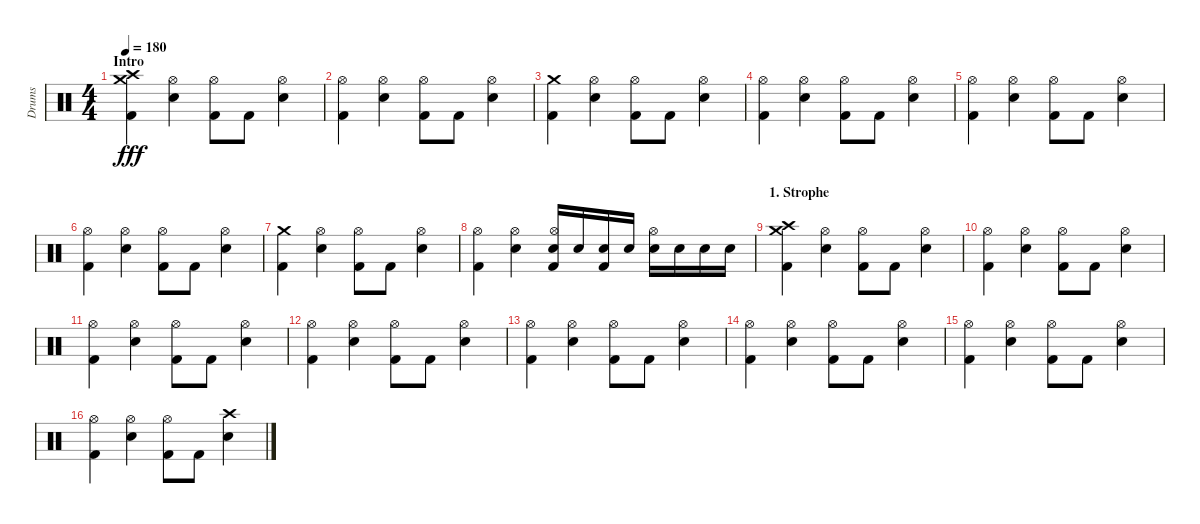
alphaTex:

\track ("Drums" "Drums") {instrument percussion}
\staff {score}
\articulation defaults
\ts (4 4)
\section ("" "Intro")
\tempo 180
\clef neutral
\ks c
("Crash medium (hit)" "Crash high (hit)" "Kick (hit) 2").4{dy fff} ("Hi-Hat (open)" "Electric Snare (hit)").4 ("Hi-Hat (open)" "Kick (hit) 2").8 "Kick (hit) 2".8 ("Hi-Hat (open)" "Electric Snare (hit)").4 |
("Hi-Hat (open)" "Kick (hit) 2").4 ("Hi-Hat (open)" "Electric Snare (hit)").4 ("Hi-Hat (open)" "Kick (hit) 2").8 "Kick (hit) 2".8 ("Hi-Hat (open)" "Electric Snare (hit)").4 |
("Crash medium (hit)" "Kick (hit) 2").4 ("Hi-Hat (open)" "Electric Snare (hit)").4 ("Hi-Hat (open)" "Kick (hit) 2").8 "Kick (hit) 2".8 ("Hi-Hat (open)" "Electric Snare (hit)").4 |
("Hi-Hat (open)" "Kick (hit) 2").4 ("Hi-Hat (open)" "Electric Snare (hit)").4 ("Hi-Hat (open)" "Kick (hit) 2").8 "Kick (hit) 2".8 ("Hi-Hat (open)" "Electric Snare (hit)").4 |
("Hi-Hat (open)" "Kick (hit) 2").4 ("Hi-Hat (open)" "Electric Snare (hit)").4 ("Hi-Hat (open)" "Kick (hit) 2").8 "Kick (hit) 2".8 ("Hi-Hat (open)" "Electric Snare (hit)").4 |
("Hi-Hat (open)" "Kick (hit) 2").4 ("Hi-Hat (open)" "Electric Snare (hit)").4 ("Hi-Hat (open)" "Kick (hit) 2").8 "Kick (hit) 2".8 ("Hi-Hat (open)" "Electric Snare (hit)").4 |
("Crash medium (hit)" "Kick (hit) 2").4 ("Hi-Hat (open)" "Electric Snare (hit)").4 ("Hi-Hat (open)" "Kick (hit) 2").8 "Kick (hit) 2".8 ("Hi-Hat (open)" "Electric Snare (hit)").4 |
("Hi-Hat (open)" "Kick (hit) 2").4 ("Hi-Hat (open)" "Electric Snare (hit)").4 ("Hi-Hat (open)" "Kick (hit) 2" "Electric Snare (hit)").16 "Electric Snare (hit)".16 ("Kick (hit) 2" "Electric Snare (hit)").16 "Electric Snare (hit)".16 ("Hi-Hat (open)" "Electric Snare (hit)").16 "Electric Snare (hit)".16 "Electric Snare (hit)".16 "Electric Snare (hit)".16 |
\section ("" "1. Strophe")
("Crash medium (hit)" "Crash high (hit)" "Kick (hit) 2").4 ("Hi-Hat (open)" "Electric Snare (hit)").4 ("Hi-Hat (open)" "Kick (hit) 2").8 "Kick (hit) 2".8 ("Hi-Hat (open)" "Electric Snare (hit)").4 |
("Hi-Hat (open)" "Kick (hit) 2").4 ("Hi-Hat (open)" "Electric Snare (hit)").4 ("Hi-Hat (open)" "Kick (hit) 2").8 "Kick (hit) 2".8 ("Hi-Hat (open)" "Electric Snare (hit)").4 |
("Hi-Hat (open)" "Kick (hit) 2").4 ("Hi-Hat (open)" "Electric Snare (hit)").4 ("Hi-Hat (open)" "Kick (hit) 2").8 "Kick (hit) 2".8 ("Hi-Hat (open)" "Electric Snare (hit)").4 |
("Hi-Hat (open)" "Kick (hit) 2").4 ("Hi-Hat (open)" "Electric Snare (hit)").4 ("Hi-Hat (open)" "Kick (hit) 2").8 "Kick (hit) 2".8 ("Hi-Hat (open)" "Electric Snare (hit)").4 |
("Hi-Hat (open)" "Kick (hit) 2").4 ("Hi-Hat (open)" "Electric Snare (hit)").4 ("Hi-Hat (open)" "Kick (hit) 2").8 "Kick (hit) 2".8 ("Hi-Hat (open)" "Electric Snare (hit)").4 |
("Hi-Hat (open)" "Kick (hit) 2").4 ("Hi-Hat (open)" "Electric Snare (hit)").4 ("Hi-Hat (open)" "Kick (hit) 2").8 "Kick (hit) 2".8 ("Hi-Hat (open)" "Electric Snare (hit)").4 |
("Hi-Hat (open)" "Kick (hit) 2").4 ("Hi-Hat (open)" "Electric Snare (hit)").4 ("Hi-Hat (open)" "Kick (hit) 2").8 "Kick (hit) 2".8 ("Hi-Hat (open)" "Electric Snare (hit)").4 |
("Hi-Hat (open)" "Kick (hit) 2").4 ("Hi-Hat (open)" "Electric Snare (hit)").4 ("Hi-Hat (open)" "Kick (hit) 2").8 "Kick (hit) 2".8 ("Crash high (hit)" "Electric Snare (hit)").4
